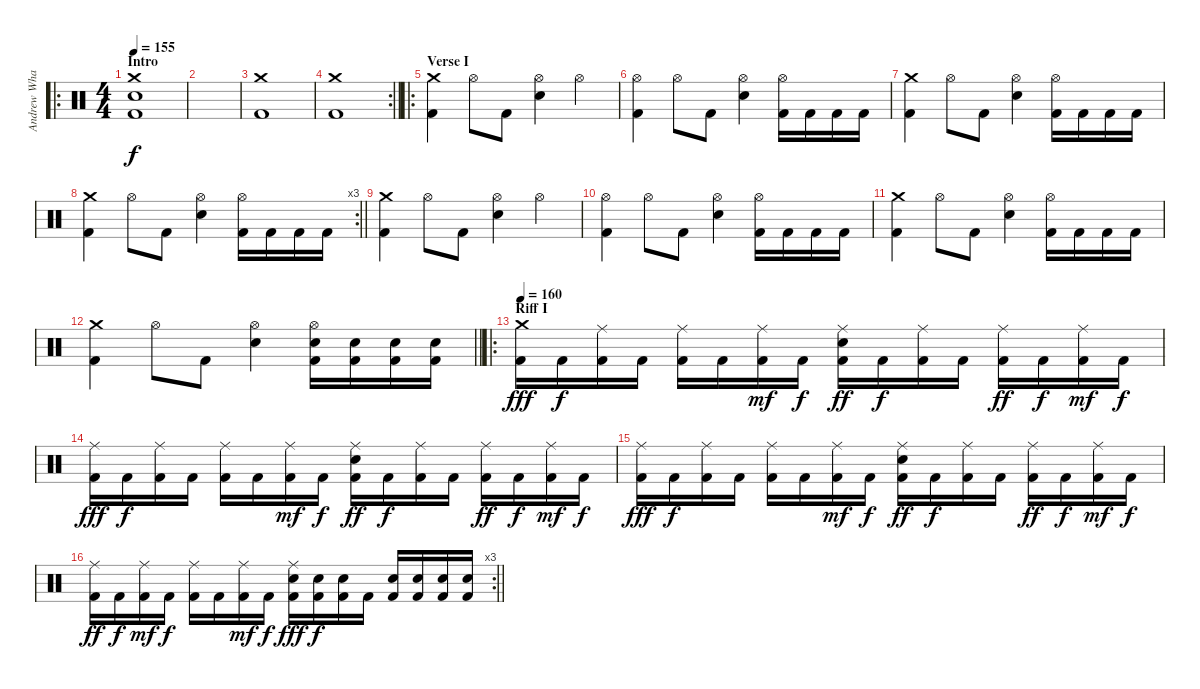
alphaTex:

\track ("Andrew Whale" "Andrew Wha") {instrument percussion}
\staff {score}
\articulation defaults
\ro
\ts (4 4)
\section ("" "Intro")
\tempo 155
\clef neutral
\ks c
("Crash medium (hit)" "Snare (hit) 2" "Kick (hit) 2").1{dy f} |
|
("Crash medium (hit)" "Kick (hit) 2").1 |
\rc 2
\barLineRight lightlight
("Crash medium (hit)" "Kick (hit) 2").1 |
\ro
\section ("" "Verse I")
("Crash medium (hit)" "Kick (hit) 2").4 "Hi-Hat (open)".8 "Kick (hit) 2".8 ("Hi-Hat (open)" "Snare (hit) 2").4 "Hi-Hat (open)".4 |
("Hi-Hat (open)" "Kick (hit) 2").4 "Hi-Hat (open)".8 "Kick (hit) 2".8 ("Hi-Hat (open)" "Snare (hit) 2").4 ("Hi-Hat (open)" "Kick (hit) 2").16 "Kick (hit) 2".16 "Kick (hit) 2".16 "Kick (hit) 2".16 |
("Crash medium (hit)" "Kick (hit) 2").4 "Hi-Hat (open)".8 "Kick (hit) 2".8 ("Hi-Hat (open)" "Snare (hit) 2").4 ("Hi-Hat (open)" "Kick (hit) 2").16 "Kick (hit) 2".16 "Kick (hit) 2".16 "Kick (hit) 2".16 |
\rc 3
\barLineRight lightlight
("Crash medium (hit)" "Kick (hit) 2").4 "Hi-Hat (open)".8 "Kick (hit) 2".8 ("Hi-Hat (open)" "Snare (hit) 2").4 ("Hi-Hat (open)" "Kick (hit) 2").16 "Kick (hit) 2".16 "Kick (hit) 2".16 "Kick (hit) 2".16 |
("Crash medium (hit)" "Kick (hit) 2").4 "Hi-Hat (open)".8 "Kick (hit) 2".8 ("Hi-Hat (open)" "Snare (hit) 2").4 "Hi-Hat (open)".4 |
("Hi-Hat (open)" "Kick (hit) 2").4 "Hi-Hat (open)".8 "Kick (hit) 2".8 ("Hi-Hat (open)" "Snare (hit) 2").4 ("Hi-Hat (open)" "Kick (hit) 2").16 "Kick (hit) 2".16 "Kick (hit) 2".16 "Kick (hit) 2".16 |
("Crash medium (hit)" "Kick (hit) 2").4 "Hi-Hat (open)".8 "Kick (hit) 2".8 ("Hi-Hat (open)" "Snare (hit) 2").4 ("Hi-Hat (open)" "Kick (hit) 2").16 "Kick (hit) 2".16 "Kick (hit) 2".16 "Kick (hit) 2".16 |
\barLineRight lightlight
("Crash medium (hit)" "Kick (hit) 2").4 "Hi-Hat (open)".8 "Kick (hit) 2".8 ("Hi-Hat (open)" "Snare (hit) 2").4 ("Hi-Hat (open)" "Snare (hit) 2" "Kick (hit) 2").16 ("Snare (hit) 2" "Kick (hit) 2").16 ("Snare (hit) 2" "Kick (hit) 2").16 ("Snare (hit) 2" "Kick (hit) 2").16 |
\ro
\section ("" "Riff I")
\tempo 160
("Crash medium (hit)" "Kick (hit) 2").16{dy fff} "Kick (hit) 2".16{dy f} ("Ride (middle)" "Kick (hit) 2").16 "Kick (hit) 2".16 ("Ride (middle)" "Kick (hit) 2").16 "Kick (hit) 2".16 ("Ride (middle)" "Kick (hit) 2").16{dy mf} "Kick (hit) 2".16{dy f} ("Ride (middle)" "Snare (hit) 2" "Kick (hit) 2").16{dy ff} "Kick (hit) 2".16{dy f} ("Ride (middle)" "Kick (hit) 2").16 "Kick (hit) 2".16 ("Ride (middle)" "Kick (hit) 2").16{dy ff} "Kick (hit) 2".16{dy f} ("Ride (middle)" "Kick (hit) 2").16{dy mf} "Kick (hit) 2".16{dy f} |
("Ride (middle)" "Kick (hit) 2").16{dy fff} "Kick (hit) 2".16{dy f} ("Ride (middle)" "Kick (hit) 2").16 "Kick (hit) 2".16 ("Ride (middle)" "Kick (hit) 2").16 "Kick (hit) 2".16 ("Ride (middle)" "Kick (hit) 2").16{dy mf} "Kick (hit) 2".16{dy f} ("Ride (middle)" "Snare (hit) 2" "Kick (hit) 2").16{dy ff} "Kick (hit) 2".16{dy f} ("Ride (middle)" "Kick (hit) 2").16 "Kick (hit) 2".16 ("Ride (middle)" "Kick (hit) 2").16{dy ff} "Kick (hit) 2".16{dy f} ("Ride (middle)" "Kick (hit) 2").16{dy mf} "Kick (hit) 2".16{dy f} |
("Ride (middle)" "Kick (hit) 2").16{dy fff} "Kick (hit) 2".16{dy f} ("Ride (middle)" "Kick (hit) 2").16 "Kick (hit) 2".16 ("Ride (middle)" "Kick (hit) 2").16 "Kick (hit) 2".16 ("Ride (middle)" "Kick (hit) 2").16{dy mf} "Kick (hit) 2".16{dy f} ("Ride (middle)" "Snare (hit) 2" "Kick (hit) 2").16{dy ff} "Kick (hit) 2".16{dy f} ("Ride (middle)" "Kick (hit) 2").16 "Kick (hit) 2".16 ("Ride (middle)" "Kick (hit) 2").16{dy ff} "Kick (hit) 2".16{dy f} ("Ride (middle)" "Kick (hit) 2").16{dy mf} "Kick (hit) 2".16{dy f} |
\rc 3
\barLineRight lightlight
("Ride (middle)" "Kick (hit) 2").16{dy ff} "Kick (hit) 2".16{dy f} ("Ride (middle)" "Kick (hit) 2").16{dy mf} "Kick (hit) 2".16{dy f} ("Ride (middle)" "Kick (hit) 2").16 "Kick (hit) 2".16 ("Ride (middle)" "Kick (hit) 2").16{dy mf} "Kick (hit) 2".16{dy f} ("Ride (middle)" "Snare (hit) 2" "Kick (hit) 2").16{dy fff} ("Snare (hit) 2" "Kick (hit) 2").16{dy f} ("Snare (hit) 2" "Kick (hit) 2").16 "Kick (hit) 2".16 ("Snare (hit) 2" "Kick (hit) 2").16 ("Snare (hit) 2" "Kick (hit) 2").16 ("Snare (hit) 2" "Kick (hit) 2").16 ("Snare (hit) 2" "Kick (hit) 2").16
